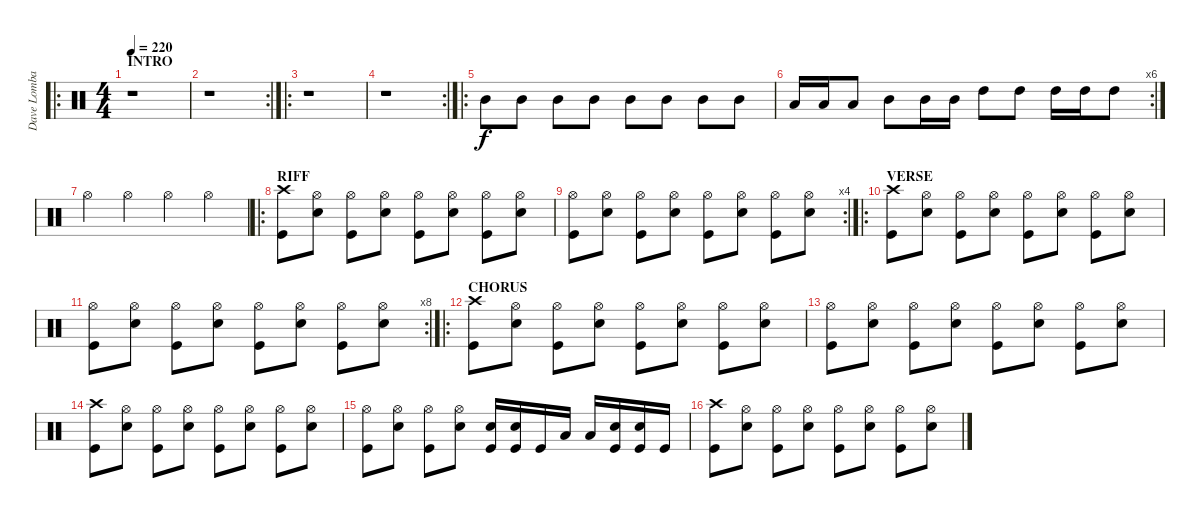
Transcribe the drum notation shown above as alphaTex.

\track ("Dave Lombardo" "Dave Lomba") {instrument percussion}
\staff {score}
\articulation defaults
\ro
\ts (4 4)
\section ("" "INTRO")
\tempo 220
\clef neutral
\ks c
r.1{dy f} |
\rc 2
r.1 |
\ro
r.1 |
\rc 2
r.1 |
\ro "Mid Tom (hit)".8 "Mid Tom (hit)".8 "Mid Tom (hit)".8 "Mid Tom (hit)".8 "Mid Tom (hit)".8 "Mid Tom (hit)".8 "Mid Tom (hit)".8 "Mid Tom (hit)".8
|
\rc 6 "Low Tom (hit)".16 "Low Tom (hit)".16 "Low Tom (hit)".8 "Mid Tom (hit)".8 "Mid Tom (hit)".16 "Mid Tom (hit)".16 "High Tom (hit)".8 "High Tom (hit)".8 "High Tom (hit)".16 "High Tom (hit)".16 "High Tom (hit)".8
|
"Hi-Hat (open)".4 "Hi-Hat (open)".4 "Hi-Hat (open)".4 "Hi-Hat (open)".4 |
\ro
\section ("" "RIFF")
("Crash high (hit)" "Kick (hit)").8 ("Hi-Hat (open)" "Snare (hit) 2").8 ("Hi-Hat (open)" "Kick (hit)").8 ("Hi-Hat (open)" "Snare (hit) 2").8 ("Hi-Hat (open)" "Kick (hit)").8 ("Hi-Hat (open)" "Snare (hit) 2").8 ("Hi-Hat (open)" "Kick (hit)").8 ("Hi-Hat (open)" "Snare (hit) 2").8 |
\rc 4
("Hi-Hat (open)" "Kick (hit)").8 ("Hi-Hat (open)" "Snare (hit) 2").8 ("Hi-Hat (open)" "Kick (hit)").8 ("Hi-Hat (open)" "Snare (hit) 2").8 ("Hi-Hat (open)" "Kick (hit)").8 ("Hi-Hat (open)" "Snare (hit) 2").8 ("Hi-Hat (open)" "Kick (hit)").8 ("Hi-Hat (open)" "Snare (hit) 2").8 |
\ro
\section ("" "VERSE")
("Crash high (hit)" "Kick (hit)").8 ("Hi-Hat (open)" "Snare (hit) 2").8 ("Hi-Hat (open)" "Kick (hit)").8 ("Hi-Hat (open)" "Snare (hit) 2").8 ("Hi-Hat (open)" "Kick (hit)").8 ("Hi-Hat (open)" "Snare (hit) 2").8 ("Hi-Hat (open)" "Kick (hit)").8 ("Hi-Hat (open)" "Snare (hit) 2").8 |
\rc 8
("Hi-Hat (open)" "Kick (hit)").8 ("Hi-Hat (open)" "Snare (hit) 2").8 ("Hi-Hat (open)" "Kick (hit)").8 ("Hi-Hat (open)" "Snare (hit) 2").8 ("Hi-Hat (open)" "Kick (hit)").8 ("Hi-Hat (open)" "Snare (hit) 2").8 ("Hi-Hat (open)" "Kick (hit)").8 ("Hi-Hat (open)" "Snare (hit) 2").8 |
\ro
\section ("" "CHORUS")
("Crash high (hit)" "Kick (hit)").8 ("Hi-Hat (open)" "Snare (hit) 2").8 ("Hi-Hat (open)" "Kick (hit)").8 ("Hi-Hat (open)" "Snare (hit) 2").8 ("Hi-Hat (open)" "Kick (hit)").8 ("Hi-Hat (open)" "Snare (hit) 2").8 ("Hi-Hat (open)" "Kick (hit)").8 ("Hi-Hat (open)" "Snare (hit) 2").8 |
("Hi-Hat (open)" "Kick (hit)").8 ("Hi-Hat (open)" "Snare (hit) 2").8 ("Hi-Hat (open)" "Kick (hit)").8 ("Hi-Hat (open)" "Snare (hit) 2").8 ("Hi-Hat (open)" "Kick (hit)").8 ("Hi-Hat (open)" "Snare (hit) 2").8 ("Hi-Hat (open)" "Kick (hit)").8 ("Hi-Hat (open)" "Snare (hit) 2").8 |
("Crash high (hit)" "Kick (hit)").8 ("Hi-Hat (open)" "Snare (hit) 2").8 ("Hi-Hat (open)" "Kick (hit)").8 ("Hi-Hat (open)" "Snare (hit) 2").8 ("Hi-Hat (open)" "Kick (hit)").8 ("Hi-Hat (open)" "Snare (hit) 2").8 ("Hi-Hat (open)" "Kick (hit)").8 ("Hi-Hat (open)" "Snare (hit) 2").8 |
("Hi-Hat (open)" "Kick (hit)").8 ("Hi-Hat (open)" "Snare (hit) 2").8 ("Hi-Hat (open)" "Kick (hit)").8 ("Hi-Hat (open)" "Snare (hit) 2").8 ("Kick (hit)" "Snare (hit) 2").16 ("Kick (hit)" "Snare (hit) 2").16 "Kick (hit)".16 "Low Tom (hit)".16 "Low Tom (hit)".16 ("Kick (hit)" "Snare (hit) 2").16 ("Kick (hit)" "Snare (hit) 2").16 "Kick (hit)".16 |
("Crash high (hit)" "Kick (hit)").8 ("Hi-Hat (open)" "Snare (hit) 2").8 ("Hi-Hat (open)" "Kick (hit)").8 ("Hi-Hat (open)" "Snare (hit) 2").8 ("Hi-Hat (open)" "Kick (hit)").8 ("Hi-Hat (open)" "Snare (hit) 2").8 ("Hi-Hat (open)" "Kick (hit)").8 ("Hi-Hat (open)" "Snare (hit) 2").8
